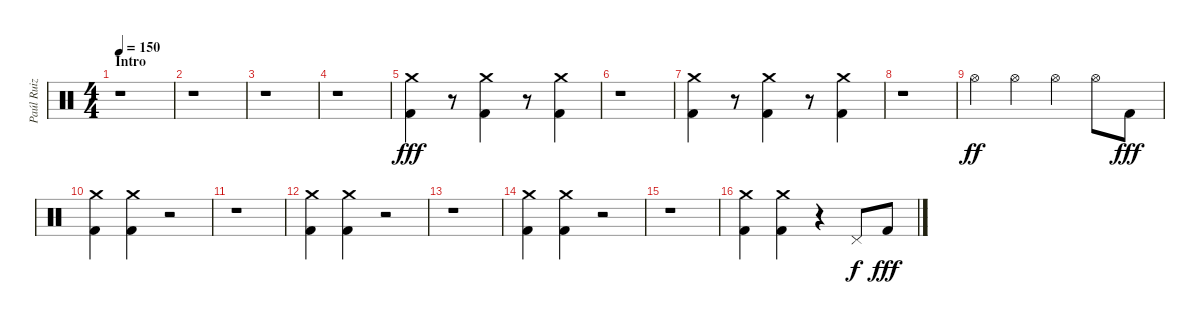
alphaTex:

\track ("Paúl Ruiz" "Paúl Ruiz") {instrument percussion}
\staff {score}
\articulation defaults
\ts (4 4)
\section ("" "Intro")
\tempo 150
\clef neutral
\ks c
r.1{dy fff} |
r.1 |
r.1 |
r.1 |
("Crash medium (hit)" "Kick (hit) 2").4 r.8 ("Crash medium (hit)" "Kick (hit) 2").4 r.8 ("Crash medium (hit)" "Kick (hit) 2").4 |
r.1 |
("Crash medium (hit)" "Kick (hit) 2").4 r.8 ("Crash medium (hit)" "Kick (hit) 2").4 r.8 ("Crash medium (hit)" "Kick (hit) 2").4 |
r.1 |
"Hi-Hat (open)".4{dy ff} "Hi-Hat (open)".4 "Hi-Hat (open)".4 "Hi-Hat (open)".8 "Kick (hit) 2".8{dy fff} |
("Crash medium (hit)" "Kick (hit) 2").4 ("Crash medium (hit)" "Kick (hit) 2").4 r.2 |
r.1 |
("Crash medium (hit)" "Kick (hit) 2").4 ("Crash medium (hit)" "Kick (hit) 2").4 r.2 |
r.1 |
("Crash medium (hit)" "Kick (hit) 2").4 ("Crash medium (hit)" "Kick (hit) 2").4 r.2 |
r.1 |
("Crash medium (hit)" "Kick (hit) 2").4 ("Crash medium (hit)" "Kick (hit) 2").4 r.4 "Pedal Hi-Hat (hit)".8{dy f} "Kick (hit) 2".8{dy fff}
